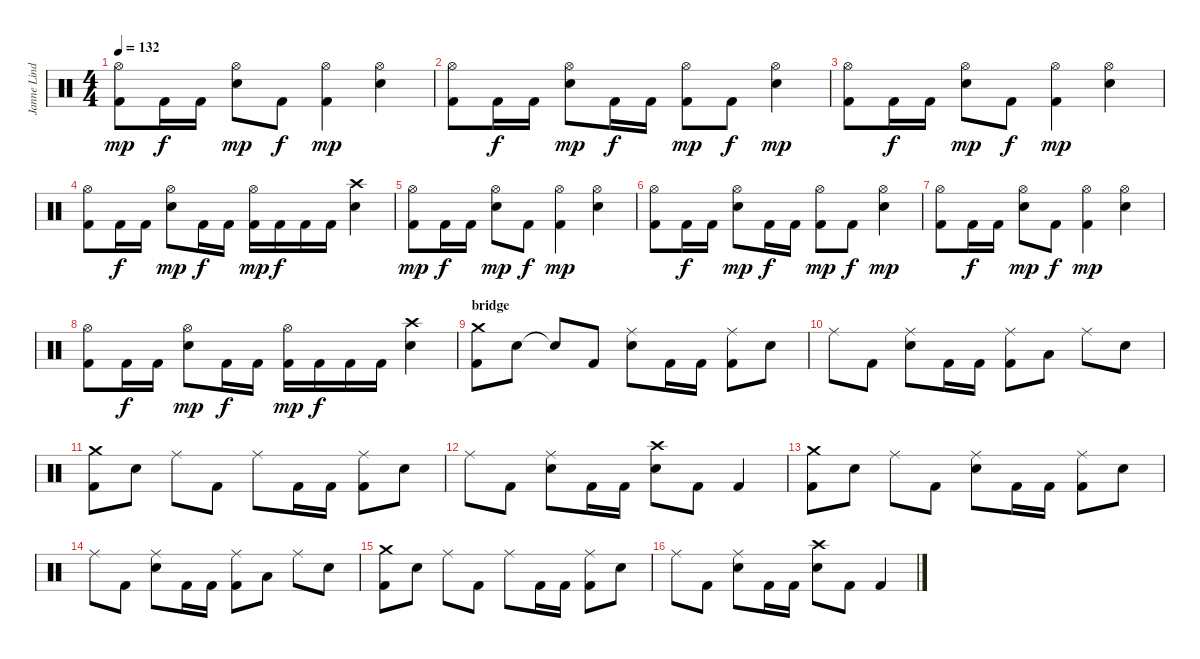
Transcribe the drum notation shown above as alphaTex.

\track ("Janne Lindh" "Janne Lind") {instrument percussion}
\staff {score}
\articulation defaults
\ts (4 4)
\tempo 132
\clef neutral
\ks c
("Kick (hit) 2" "Hi-Hat (open)").8{dy mp} "Kick (hit) 2".16{dy f} "Kick (hit) 2".16 ("Hi-Hat (open)" "Snare (hit) 2").8{dy mp} "Kick (hit) 2".8{dy f} ("Kick (hit) 2" "Hi-Hat (open)").4{dy mp} ("Hi-Hat (open)" "Snare (hit) 2").4 |
("Kick (hit) 2" "Hi-Hat (open)").8 "Kick (hit) 2".16{dy f} "Kick (hit) 2".16 ("Hi-Hat (open)" "Snare (hit) 2").8{dy mp} "Kick (hit) 2".16{dy f} "Kick (hit) 2".16 ("Kick (hit) 2" "Hi-Hat (open)").8{dy mp} "Kick (hit) 2".8{dy f} ("Hi-Hat (open)" "Snare (hit) 2").4{dy mp} |
("Kick (hit) 2" "Hi-Hat (open)").8 "Kick (hit) 2".16{dy f} "Kick (hit) 2".16 ("Hi-Hat (open)" "Snare (hit) 2").8{dy mp} "Kick (hit) 2".8{dy f} ("Kick (hit) 2" "Hi-Hat (open)").4{dy mp} ("Hi-Hat (open)" "Snare (hit) 2").4 |
("Kick (hit) 2" "Hi-Hat (open)").8 "Kick (hit) 2".16{dy f} "Kick (hit) 2".16 ("Hi-Hat (open)" "Snare (hit) 2").8{dy mp} "Kick (hit) 2".16{dy f} "Kick (hit) 2".16 ("Kick (hit) 2" "Hi-Hat (open)").16{dy mp} "Kick (hit) 2".16{dy f} "Kick (hit) 2".16 "Kick (hit) 2".16 ("Crash high (hit)" "Snare (hit) 2").4 |
("Kick (hit) 2" "Hi-Hat (open)").8{dy mp} "Kick (hit) 2".16{dy f} "Kick (hit) 2".16 ("Hi-Hat (open)" "Snare (hit) 2").8{dy mp} "Kick (hit) 2".8{dy f} ("Kick (hit) 2" "Hi-Hat (open)").4{dy mp} ("Hi-Hat (open)" "Snare (hit) 2").4 |
("Kick (hit) 2" "Hi-Hat (open)").8 "Kick (hit) 2".16{dy f} "Kick (hit) 2".16 ("Hi-Hat (open)" "Snare (hit) 2").8{dy mp} "Kick (hit) 2".16{dy f} "Kick (hit) 2".16 ("Kick (hit) 2" "Hi-Hat (open)").8{dy mp} "Kick (hit) 2".8{dy f} ("Hi-Hat (open)" "Snare (hit) 2").4{dy mp} |
("Kick (hit) 2" "Hi-Hat (open)").8 "Kick (hit) 2".16{dy f} "Kick (hit) 2".16 ("Hi-Hat (open)" "Snare (hit) 2").8{dy mp} "Kick (hit) 2".8{dy f} ("Kick (hit) 2" "Hi-Hat (open)").4{dy mp} ("Hi-Hat (open)" "Snare (hit) 2").4 |
("Kick (hit) 2" "Hi-Hat (open)").8 "Kick (hit) 2".16{dy f} "Kick (hit) 2".16 ("Hi-Hat (open)" "Snare (hit) 2").8{dy mp} "Kick (hit) 2".16{dy f} "Kick (hit) 2".16 ("Kick (hit) 2" "Hi-Hat (open)").16{dy mp} "Kick (hit) 2".16{dy f} "Kick (hit) 2".16 "Kick (hit) 2".16 ("Crash high (hit)" "Snare (hit) 2").4 |
\section ("" "bridge")
("Kick (hit) 2" "Crash medium (hit)").8 "Snare (hit) 2".8 "Snare (hit)"{t}.8 "Kick (hit) 2".8 ("Ride (middle)" "Snare (hit) 2").8 "Kick (hit) 2".16 "Kick (hit) 2".16 ("Kick (hit) 2" "Ride (middle)").8 "Snare (hit) 2".8 |
"Ride (middle)".8 "Kick (hit) 2".8 ("Ride (middle)" "Snare (hit) 2").8 "Kick (hit) 2".16 "Kick (hit) 2".16 ("Kick (hit) 2" "Ride (middle)").8 "Low Tom (hit)".8 "Ride (middle)".8 "Snare (hit) 2".8 |
("Kick (hit) 2" "Crash medium (hit)").8 "Snare (hit) 2".8 "Ride (middle)".8 "Kick (hit) 2".8 "Ride (middle)".8 "Kick (hit) 2".16 "Kick (hit) 2".16 ("Kick (hit) 2" "Ride (middle)").8 "Snare (hit) 2".8 |
"Ride (middle)".8 "Kick (hit) 2".8 ("Ride (middle)" "Snare (hit) 2").8 "Kick (hit) 2".16 "Kick (hit) 2".16 ("Crash high (hit)" "Snare (hit) 2").8 "Kick (hit) 2".8 "Kick (hit) 2".4 |
("Kick (hit) 2" "Crash medium (hit)").8 "Snare (hit) 2".8 "Ride (middle)".8 "Kick (hit) 2".8 ("Ride (middle)" "Snare (hit) 2").8 "Kick (hit) 2".16 "Kick (hit) 2".16 ("Kick (hit) 2" "Ride (middle)").8 "Snare (hit) 2".8 |
"Ride (middle)".8 "Kick (hit) 2".8 ("Ride (middle)" "Snare (hit) 2").8 "Kick (hit) 2".16 "Kick (hit) 2".16 ("Kick (hit) 2" "Ride (middle)").8 "Low Tom (hit)".8 "Ride (middle)".8 "Snare (hit) 2".8 |
("Kick (hit) 2" "Crash medium (hit)").8 "Snare (hit) 2".8 "Ride (middle)".8 "Kick (hit) 2".8 "Ride (middle)".8 "Kick (hit) 2".16 "Kick (hit) 2".16 ("Kick (hit) 2" "Ride (middle)").8 "Snare (hit) 2".8 |
"Ride (middle)".8 "Kick (hit) 2".8 ("Ride (middle)" "Snare (hit) 2").8 "Kick (hit) 2".16 "Kick (hit) 2".16 ("Crash high (hit)" "Snare (hit) 2").8 "Kick (hit) 2".8 "Kick (hit) 2".4
